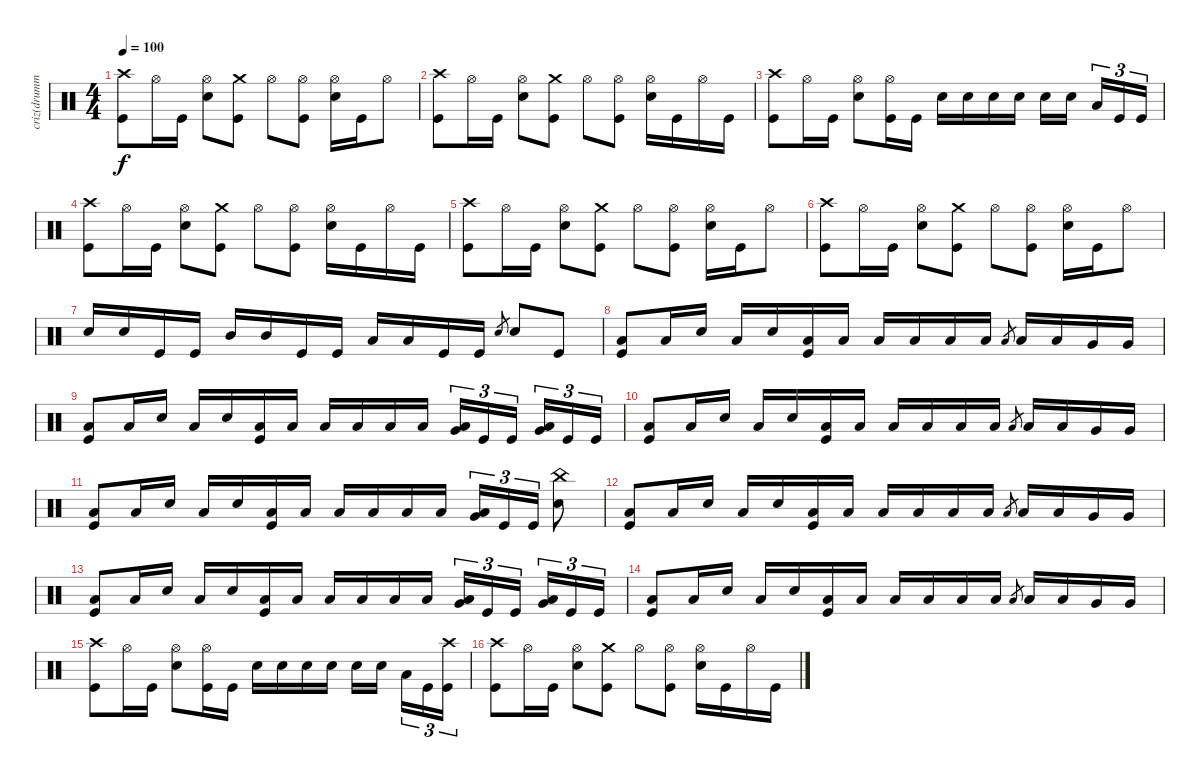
\track ("criz(drummer)" "criz(drumm") {instrument percussion}
\staff {score}
\articulation defaults
\ts (4 4)
\tempo 100
\clef neutral
\ks c
("Crash high (hit)" "Kick (hit)").8{dy f} "Hi-Hat (open)".16 "Kick (hit)".16 ("Hi-Hat (open)" "Electric Snare (hit)").8 ("Crash medium (hit)" "Kick (hit)").8 "Hi-Hat (open)".8 ("Hi-Hat (open)" "Kick (hit)").8 ("Hi-Hat (open)" "Electric Snare (hit)").16 "Kick (hit)".16 "Hi-Hat (open)".8 |
("Crash high (hit)" "Kick (hit)").8 "Hi-Hat (open)".16 "Kick (hit)".16 ("Hi-Hat (open)" "Electric Snare (hit)").8 ("Crash medium (hit)" "Kick (hit)").8 "Hi-Hat (open)".8 ("Hi-Hat (open)" "Kick (hit)").8 ("Hi-Hat (open)" "Electric Snare (hit)").16 "Kick (hit)".16 "Hi-Hat (open)".16 "Kick (hit)".16 |
("Crash high (hit)" "Kick (hit)").8 "Hi-Hat (open)".16 "Kick (hit)".16 ("Hi-Hat (open)" "Electric Snare (hit)").8 ("Hi-Hat (open)" "Kick (hit)").16 "Kick (hit)".16 "Electric Snare (hit)".16 "Electric Snare (hit)".16 "Electric Snare (hit)".16 "Electric Snare (hit)".16 "Electric Snare (hit)".16 "Electric Snare (hit)".16{beam splitsecondary} "Low Floor Tom (hit)".16{tu (3 2)} "Kick (hit)".16{tu (3 2)} "Kick (hit)".16{tu (3 2)} |
("Crash high (hit)" "Kick (hit)").8 "Hi-Hat (open)".16 "Kick (hit)".16 ("Hi-Hat (open)" "Electric Snare (hit)").8 ("Crash medium (hit)" "Kick (hit)").8 "Hi-Hat (open)".8 ("Hi-Hat (open)" "Kick (hit)").8 ("Hi-Hat (open)" "Electric Snare (hit)").16 "Kick (hit)".16 "Hi-Hat (open)".16 "Kick (hit)".16 |
("Crash high (hit)" "Kick (hit)").8 "Hi-Hat (open)".16 "Kick (hit)".16 ("Hi-Hat (open)" "Electric Snare (hit)").8 ("Crash medium (hit)" "Kick (hit)").8 "Hi-Hat (open)".8 ("Hi-Hat (open)" "Kick (hit)").8 ("Hi-Hat (open)" "Electric Snare (hit)").16 "Kick (hit)".16 "Hi-Hat (open)".8 |
("Crash high (hit)" "Kick (hit)").8 "Hi-Hat (open)".16 "Kick (hit)".16 ("Hi-Hat (open)" "Electric Snare (hit)").8 ("Crash medium (hit)" "Kick (hit)").8 "Hi-Hat (open)".8 ("Hi-Hat (open)" "Kick (hit)").8 ("Hi-Hat (open)" "Electric Snare (hit)").16 "Kick (hit)".16 "Hi-Hat (open)".8 |
"Electric Snare (hit)".16 "Electric Snare (hit)".16 "Kick (hit)".16 "Kick (hit)".16 "Mid Tom (hit)".16 "Mid Tom (hit)".16 "Kick (hit)".16 "Kick (hit)".16 "Low Tom (hit)".16 "Low Tom (hit)".16 "Kick (hit)".16 "Kick (hit)".16 "Electric Snare (hit)".8{gr} "Electric Snare (hit)".8 "Kick (hit)".8 |
("Low Floor Tom (hit)" "Kick (hit)").8 "Low Floor Tom (hit)".16 "Electric Snare (hit)".16 "Low Floor Tom (hit)".16 "Electric Snare (hit)".16 ("Low Floor Tom (hit)" "Kick (hit)").16 "Low Floor Tom (hit)".16 "Low Tom (hit)".16 "Low Floor Tom (hit)".16 "Low Tom (hit)".16 "Low Floor Tom (hit)".16 "Low Tom (hit)".8{gr} "Low Tom (hit)".16 "Low Tom (hit)".16 "Very Low Tom (hit)".16 "Very Low Tom (hit)".16 |
("Low Floor Tom (hit)" "Kick (hit)").8 "Low Floor Tom (hit)".16 "Electric Snare (hit)".16 "Low Floor Tom (hit)".16 "Electric Snare (hit)".16 ("Low Floor Tom (hit)" "Kick (hit)").16 "Low Floor Tom (hit)".16 "Low Tom (hit)".16 "Low Floor Tom (hit)".16 "Low Tom (hit)".16 "Low Floor Tom (hit)".16 ("Low Tom (hit)" "Very Low Tom (hit)").16{tu (3 2)} "Kick (hit)".16{tu (3 2)} "Kick (hit)".16{tu (3 2) beam splitsecondary} ("Very Low Tom (hit)" "Low Floor Tom (hit)").16{tu (3 2)} "Kick (hit)".16{tu (3 2)} "Kick (hit)".16{tu (3 2)} |
("Low Floor Tom (hit)" "Kick (hit)").8 "Low Floor Tom (hit)".16 "Electric Snare (hit)".16 "Low Floor Tom (hit)".16 "Electric Snare (hit)".16 ("Low Floor Tom (hit)" "Kick (hit)").16 "Low Floor Tom (hit)".16 "Low Tom (hit)".16 "Low Floor Tom (hit)".16 "Low Tom (hit)".16 "Low Floor Tom (hit)".16 "Low Tom (hit)".8{gr} "Low Tom (hit)".16 "Low Tom (hit)".16 "Very Low Tom (hit)".16 "Very Low Tom (hit)".16 |
("Low Floor Tom (hit)" "Kick (hit)").8 "Low Floor Tom (hit)".16 "Electric Snare (hit)".16 "Low Floor Tom (hit)".16 "Electric Snare (hit)".16 ("Low Floor Tom (hit)" "Kick (hit)").16 "Low Floor Tom (hit)".16 "Low Tom (hit)".16 "Low Floor Tom (hit)".16 "Low Tom (hit)".16 "Low Floor Tom (hit)".16 ("Low Tom (hit)" "Very Low Tom (hit)").16{tu (3 2)} "Kick (hit)".16{tu (3 2)} "Kick (hit)".16{tu (3 2)} ("China (hit)" "Electric Snare (hit)").8 |
("Low Floor Tom (hit)" "Kick (hit)").8 "Low Floor Tom (hit)".16 "Electric Snare (hit)".16 "Low Floor Tom (hit)".16 "Electric Snare (hit)".16 ("Low Floor Tom (hit)" "Kick (hit)").16 "Low Floor Tom (hit)".16 "Low Tom (hit)".16 "Low Floor Tom (hit)".16 "Low Tom (hit)".16 "Low Floor Tom (hit)".16 "Low Tom (hit)".8{gr} "Low Tom (hit)".16 "Low Tom (hit)".16 "Very Low Tom (hit)".16 "Very Low Tom (hit)".16 |
("Low Floor Tom (hit)" "Kick (hit)").8 "Low Floor Tom (hit)".16 "Electric Snare (hit)".16 "Low Floor Tom (hit)".16 "Electric Snare (hit)".16 ("Low Floor Tom (hit)" "Kick (hit)").16 "Low Floor Tom (hit)".16 "Low Tom (hit)".16 "Low Floor Tom (hit)".16 "Low Tom (hit)".16 "Low Floor Tom (hit)".16 ("Low Tom (hit)" "Very Low Tom (hit)").16{tu (3 2)} "Kick (hit)".16{tu (3 2)} "Kick (hit)".16{tu (3 2) beam splitsecondary} ("Very Low Tom (hit)" "Low Floor Tom (hit)").16{tu (3 2)} "Kick (hit)".16{tu (3 2)} "Kick (hit)".16{tu (3 2)} |
("Low Floor Tom (hit)" "Kick (hit)").8 "Low Floor Tom (hit)".16 "Electric Snare (hit)".16 "Low Floor Tom (hit)".16 "Electric Snare (hit)".16 ("Low Floor Tom (hit)" "Kick (hit)").16 "Low Floor Tom (hit)".16 "Low Tom (hit)".16 "Low Floor Tom (hit)".16 "Low Tom (hit)".16 "Low Floor Tom (hit)".16 "Low Tom (hit)".8{gr} "Low Tom (hit)".16 "Low Tom (hit)".16 "Very Low Tom (hit)".16 "Very Low Tom (hit)".16 |
("Crash high (hit)" "Kick (hit)").8 "Hi-Hat (open)".16 "Kick (hit)".16 ("Hi-Hat (open)" "Electric Snare (hit)").8 ("Hi-Hat (open)" "Kick (hit)").16 "Kick (hit)".16 "Electric Snare (hit)".16 "Electric Snare (hit)".16 "Electric Snare (hit)".16 "Electric Snare (hit)".16 "Electric Snare (hit)".16 "Electric Snare (hit)".16{beam splitsecondary} "Low Floor Tom (hit)".16{tu (3 2)} "Kick (hit)".16{tu (3 2)} ("Crash high (hit)" "Kick (hit)").16{tu (3 2)} |
("Crash high (hit)" "Kick (hit)").8 "Hi-Hat (open)".16 "Kick (hit)".16 ("Hi-Hat (open)" "Electric Snare (hit)").8 ("Crash medium (hit)" "Kick (hit)").8 "Hi-Hat (open)".8 ("Hi-Hat (open)" "Kick (hit)").8 ("Hi-Hat (open)" "Electric Snare (hit)").16 "Kick (hit)".16 "Hi-Hat (open)".16 "Kick (hit)".16
